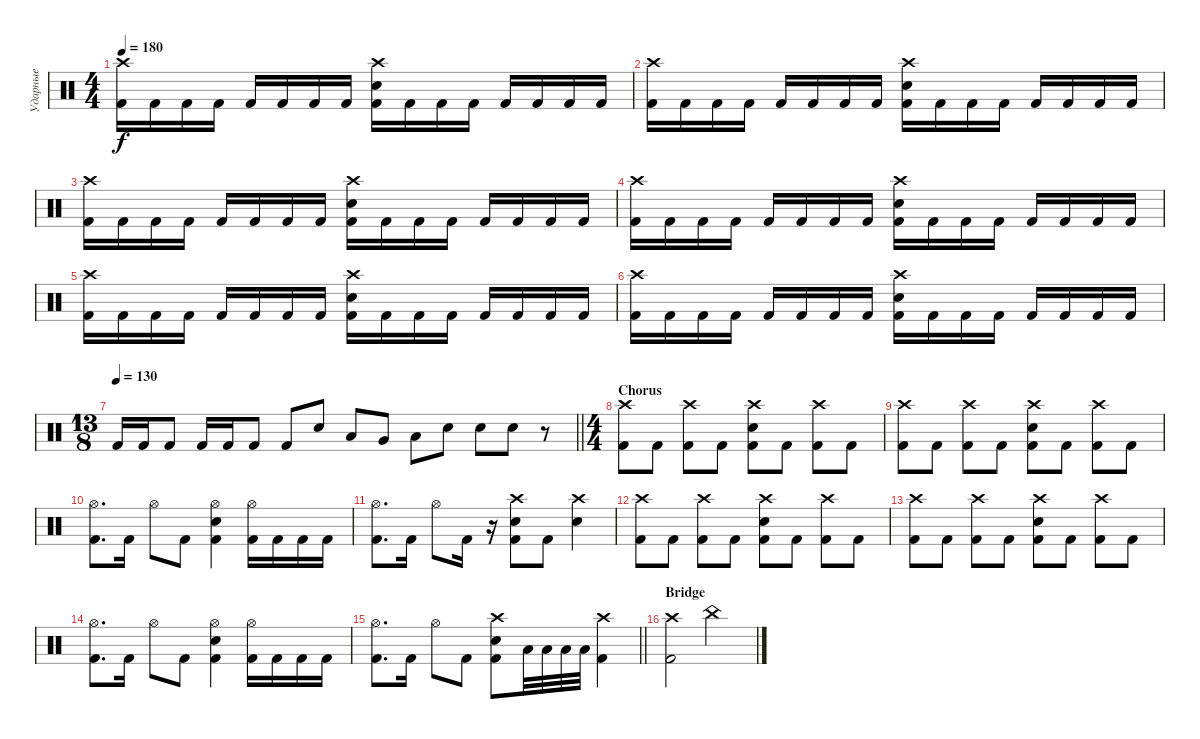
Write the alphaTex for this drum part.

\track ("Ударные" "Ударные") {instrument percussion}
\staff {score}
\articulation defaults
\ts (4 4)
\tempo 180
\clef neutral
\ks c
("Crash high (hit)" "Kick (hit) 2").16{dy f} "Kick (hit) 2".16 "Kick (hit) 2".16 "Kick (hit) 2".16 "Kick (hit) 2".16 "Kick (hit) 2".16 "Kick (hit) 2".16 "Kick (hit) 2".16 ("Crash high (hit)" "Electric Snare (hit)" "Kick (hit) 2").16 "Kick (hit) 2".16 "Kick (hit) 2".16 "Kick (hit) 2".16 "Kick (hit) 2".16 "Kick (hit) 2".16 "Kick (hit) 2".16 "Kick (hit) 2".16 |
("Crash high (hit)" "Kick (hit) 2").16 "Kick (hit) 2".16 "Kick (hit) 2".16 "Kick (hit) 2".16 "Kick (hit) 2".16 "Kick (hit) 2".16 "Kick (hit) 2".16 "Kick (hit) 2".16 ("Crash high (hit)" "Electric Snare (hit)" "Kick (hit) 2").16 "Kick (hit) 2".16 "Kick (hit) 2".16 "Kick (hit) 2".16 "Kick (hit) 2".16 "Kick (hit) 2".16 "Kick (hit) 2".16 "Kick (hit) 2".16 |
("Crash high (hit)" "Kick (hit) 2").16 "Kick (hit) 2".16 "Kick (hit) 2".16 "Kick (hit) 2".16 "Kick (hit) 2".16 "Kick (hit) 2".16 "Kick (hit) 2".16 "Kick (hit) 2".16 ("Crash high (hit)" "Electric Snare (hit)" "Kick (hit) 2").16 "Kick (hit) 2".16 "Kick (hit) 2".16 "Kick (hit) 2".16 "Kick (hit) 2".16 "Kick (hit) 2".16 "Kick (hit) 2".16 "Kick (hit) 2".16 |
("Crash high (hit)" "Kick (hit) 2").16 "Kick (hit) 2".16 "Kick (hit) 2".16 "Kick (hit) 2".16 "Kick (hit) 2".16 "Kick (hit) 2".16 "Kick (hit) 2".16 "Kick (hit) 2".16 ("Crash high (hit)" "Electric Snare (hit)" "Kick (hit) 2").16 "Kick (hit) 2".16 "Kick (hit) 2".16 "Kick (hit) 2".16 "Kick (hit) 2".16 "Kick (hit) 2".16 "Kick (hit) 2".16 "Kick (hit) 2".16 |
("Crash high (hit)" "Kick (hit) 2").16 "Kick (hit) 2".16 "Kick (hit) 2".16 "Kick (hit) 2".16 "Kick (hit) 2".16 "Kick (hit) 2".16 "Kick (hit) 2".16 "Kick (hit) 2".16 ("Crash high (hit)" "Electric Snare (hit)" "Kick (hit) 2").16 "Kick (hit) 2".16 "Kick (hit) 2".16 "Kick (hit) 2".16 "Kick (hit) 2".16 "Kick (hit) 2".16 "Kick (hit) 2".16 "Kick (hit) 2".16 |
("Crash high (hit)" "Kick (hit) 2").16 "Kick (hit) 2".16 "Kick (hit) 2".16 "Kick (hit) 2".16 "Kick (hit) 2".16 "Kick (hit) 2".16 "Kick (hit) 2".16 "Kick (hit) 2".16 ("Crash high (hit)" "Electric Snare (hit)" "Kick (hit) 2").16 "Kick (hit) 2".16 "Kick (hit) 2".16 "Kick (hit) 2".16 "Kick (hit) 2".16 "Kick (hit) 2".16 "Kick (hit) 2".16 "Kick (hit) 2".16 |
\ts (13 8)
\tempo 130
\barLineRight lightlight "Kick (hit) 2".16 "Kick (hit) 2".16 "Kick (hit) 2".8 "Kick (hit) 2".16 "Kick (hit) 2".16 "Kick (hit) 2".8 "Kick (hit) 2".8 "Electric Snare (hit)".8 "Low Tom (hit)".8 "Very Low Tom (hit)".8 "Low Floor Tom (hit)".8 "Electric Snare (hit)".8 "Electric Snare (hit)".8 "Electric Snare (hit)".8
r.8 |
\ts (4 4)
\section ("" "Chorus")
("Crash high (hit)" "Kick (hit) 2").8 "Kick (hit) 2".8 ("Crash high (hit)" "Kick (hit) 2").8 "Kick (hit) 2".8 ("Crash high (hit)" "Electric Snare (hit)" "Kick (hit) 2").8 "Kick (hit) 2".8 ("Crash high (hit)" "Kick (hit) 2").8 "Kick (hit) 2".8 |
("Crash high (hit)" "Kick (hit) 2").8 "Kick (hit) 2".8 ("Crash high (hit)" "Kick (hit) 2").8 "Kick (hit) 2".8 ("Crash high (hit)" "Electric Snare (hit)" "Kick (hit) 2").8 "Kick (hit) 2".8 ("Crash high (hit)" "Kick (hit) 2").8 "Kick (hit) 2".8 |
("Hi-Hat (open)" "Kick (hit) 2").8{d} "Kick (hit) 2".16 "Hi-Hat (open)".8 "Kick (hit) 2".8 ("Hi-Hat (open)" "Electric Snare (hit)" "Kick (hit) 2").4 ("Hi-Hat (open)" "Kick (hit) 2").16 "Kick (hit) 2".16 "Kick (hit) 2".16 "Kick (hit) 2".16 |
("Hi-Hat (open)" "Kick (hit) 2").8{d} "Kick (hit) 2".16 "Hi-Hat (open)".8 "Kick (hit) 2".16 r.16 ("Crash high (hit)" "Electric Snare (hit)" "Kick (hit) 2").8 "Kick (hit) 2".8 ("Crash high (hit)" "Electric Snare (hit)").4 |
("Crash high (hit)" "Kick (hit) 2").8 "Kick (hit) 2".8 ("Crash high (hit)" "Kick (hit) 2").8 "Kick (hit) 2".8 ("Crash high (hit)" "Electric Snare (hit)" "Kick (hit) 2").8 "Kick (hit) 2".8 ("Crash high (hit)" "Kick (hit) 2").8 "Kick (hit) 2".8 |
("Crash high (hit)" "Kick (hit) 2").8 "Kick (hit) 2".8 ("Crash high (hit)" "Kick (hit) 2").8 "Kick (hit) 2".8 ("Crash high (hit)" "Electric Snare (hit)" "Kick (hit) 2").8 "Kick (hit) 2".8 ("Crash high (hit)" "Kick (hit) 2").8 "Kick (hit) 2".8 |
("Hi-Hat (open)" "Kick (hit) 2").8{d} "Kick (hit) 2".16 "Hi-Hat (open)".8 "Kick (hit) 2".8 ("Hi-Hat (open)" "Electric Snare (hit)" "Kick (hit) 2").4 ("Hi-Hat (open)" "Kick (hit) 2").16 "Kick (hit) 2".16 "Kick (hit) 2".16 "Kick (hit) 2".16 |
\barLineRight lightlight
("Hi-Hat (open)" "Kick (hit) 2").8{d} "Kick (hit) 2".16 "Hi-Hat (open)".8 "Kick (hit) 2".8 ("Crash high (hit)" "Electric Snare (hit)" "Kick (hit) 2").8 "Low Tom (hit)".32 "Low Tom (hit)".32 "Low Tom (hit)".32 "Low Tom (hit)".32 ("Crash high (hit)" "Kick (hit) 2").4 |
\section ("" "Bridge")
("Crash high (hit)" "Kick (hit) 2").2 "China (hit)".2
